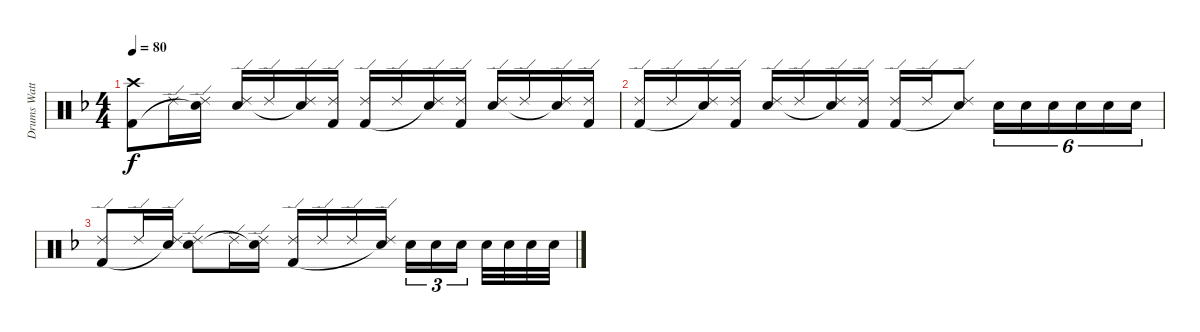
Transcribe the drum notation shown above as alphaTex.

\track ("Drums Watts" "Drums Watt") {instrument percussion}
\staff {score}
\articulation defaults
\ts (4 4)
\tempo 80
\clef neutral
\ks f
("Crash high (hit)" "Kick (hit) 2").8{dy f} "Ride (edge) 2".16 ("Ride (edge) 2" "Snare (hit)"{t}).16 ("Ride (edge) 2" "Snare (hit) 2").16 "Ride (edge) 2".16 ("Ride (edge) 2" "Snare (hit)"{t}).16 ("Ride (edge) 2" "Kick (hit) 2").16 ("Ride (edge) 2" "Kick (hit) 2").16 "Ride (edge) 2".16 ("Ride (edge) 2" "Snare (hit)"{t}).16 ("Ride (edge) 2" "Kick (hit) 2").16 ("Ride (edge) 2" "Snare (hit) 2").16 "Ride (edge) 2".16 ("Ride (edge) 2" "Snare (hit)"{t}).16 ("Ride (edge) 2" "Kick (hit) 2").16 |
("Ride (edge) 2" "Kick (hit) 2").16 "Ride (edge) 2".16 ("Ride (edge) 2" "Snare (hit)"{t}).16 ("Ride (edge) 2" "Kick (hit) 2").16 ("Ride (edge) 2" "Snare (hit) 2").16 "Ride (edge) 2".16 ("Ride (edge) 2" "Snare (hit)"{t}).16 ("Ride (edge) 2" "Kick (hit) 2").16 ("Ride (edge) 2" "Kick (hit) 2").16 "Ride (edge) 2".16 ("Ride (edge) 2" "Snare (hit)"{t}).8 "Snare (hit) 2".16{tu (6 4)} "Snare (hit) 2".16{tu (6 4)} "Snare (hit) 2".16{tu (6 4)} "Snare (hit) 2".16{tu (6 4)} "Snare (hit) 2".16{tu (6 4)} "Snare (hit) 2".16{tu (6 4)} |
("Ride (edge) 2" "Kick (hit) 2").8 "Ride (edge) 2".16 ("Ride (edge) 2" "Snare (hit)"{t}).16 ("Ride (edge) 2" "Snare (hit) 2").8 "Ride (edge) 2".16 ("Ride (edge) 2" "Snare (hit)"{t}).16 ("Ride (edge) 2" "Kick (hit) 2").16 "Ride (edge) 2".16 "Ride (edge) 2".16 ("Ride (edge) 2" "Snare (hit)"{t}).16 "Snare (hit) 2".16{tu (3 2)} "Snare (hit) 2".16{tu (3 2)} "Snare (hit) 2".16{tu (3 2)} "Snare (hit) 2".32 "Snare (hit) 2".32 "Snare (hit) 2".32 "Snare (hit) 2".32
